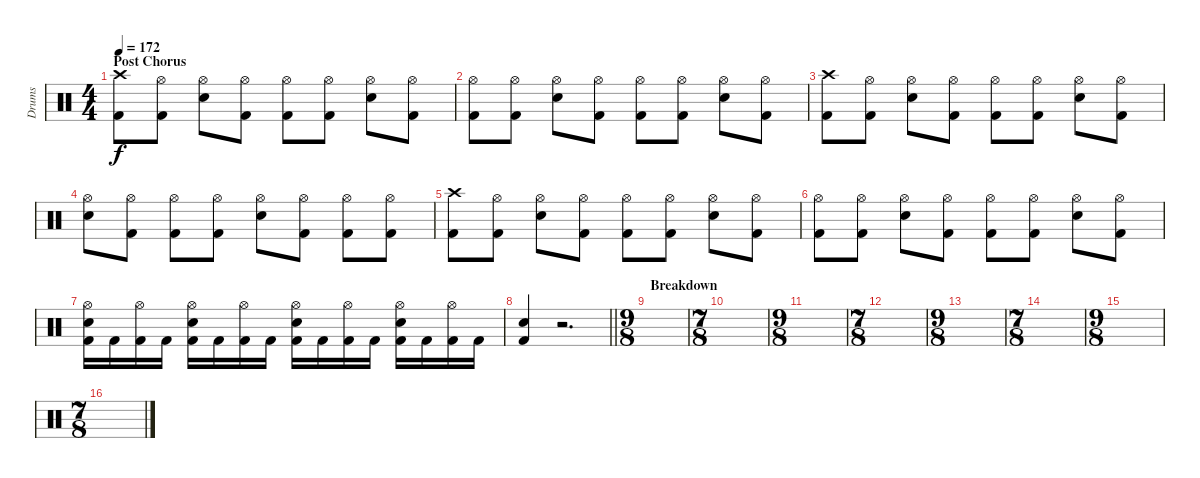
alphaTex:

\track ("Drums" "Drums") {instrument percussion}
\staff {score}
\articulation defaults
\ts (4 4)
\section ("" "Post Chorus")
\tempo 172
\clef neutral
\ks c
("Kick (hit) 2" "Crash high (hit)").8{dy f} ("Kick (hit) 2" "Hi-Hat (open)").8 ("Electric Snare (hit)" "Hi-Hat (open)").8 ("Kick (hit) 2" "Hi-Hat (open)").8 ("Kick (hit) 2" "Hi-Hat (open)").8 ("Kick (hit) 2" "Hi-Hat (open)").8 ("Electric Snare (hit)" "Hi-Hat (open)").8 ("Kick (hit) 2" "Hi-Hat (open)").8 |
("Kick (hit) 2" "Hi-Hat (open)").8 ("Kick (hit) 2" "Hi-Hat (open)").8 ("Electric Snare (hit)" "Hi-Hat (open)").8 ("Kick (hit) 2" "Hi-Hat (open)").8 ("Kick (hit) 2" "Hi-Hat (open)").8 ("Kick (hit) 2" "Hi-Hat (open)").8 ("Electric Snare (hit)" "Hi-Hat (open)").8 ("Kick (hit) 2" "Hi-Hat (open)").8 |
("Kick (hit) 2" "Crash high (hit)").8 ("Kick (hit) 2" "Hi-Hat (open)").8 ("Electric Snare (hit)" "Hi-Hat (open)").8 ("Kick (hit) 2" "Hi-Hat (open)").8 ("Kick (hit) 2" "Hi-Hat (open)").8 ("Kick (hit) 2" "Hi-Hat (open)").8 ("Electric Snare (hit)" "Hi-Hat (open)").8 ("Kick (hit) 2" "Hi-Hat (open)").8 |
("Hi-Hat (open)" "Snare (hit) 2").8 ("Kick (hit) 2" "Hi-Hat (open)").8 ("Kick (hit) 2" "Hi-Hat (open)").8 ("Kick (hit) 2" "Hi-Hat (open)").8 ("Hi-Hat (open)" "Snare (hit) 2").8 ("Kick (hit) 2" "Hi-Hat (open)").8 ("Kick (hit) 2" "Hi-Hat (open)").8 ("Kick (hit) 2" "Hi-Hat (open)").8 |
("Kick (hit) 2" "Crash high (hit)").8 ("Kick (hit) 2" "Hi-Hat (open)").8 ("Electric Snare (hit)" "Hi-Hat (open)").8 ("Kick (hit) 2" "Hi-Hat (open)").8 ("Kick (hit) 2" "Hi-Hat (open)").8 ("Kick (hit) 2" "Hi-Hat (open)").8 ("Electric Snare (hit)" "Hi-Hat (open)").8 ("Kick (hit) 2" "Hi-Hat (open)").8 |
("Kick (hit) 2" "Hi-Hat (open)").8 ("Kick (hit) 2" "Hi-Hat (open)").8 ("Electric Snare (hit)" "Hi-Hat (open)").8 ("Kick (hit) 2" "Hi-Hat (open)").8 ("Kick (hit) 2" "Hi-Hat (open)").8 ("Kick (hit) 2" "Hi-Hat (open)").8 ("Electric Snare (hit)" "Hi-Hat (open)").8 ("Kick (hit) 2" "Hi-Hat (open)").8 |
("Kick (hit) 2" "Electric Snare (hit)" "Hi-Hat (open)").16 "Kick (hit) 2".16 ("Kick (hit) 2" "Hi-Hat (open)").16 "Kick (hit) 2".16 ("Kick (hit) 2" "Electric Snare (hit)" "Hi-Hat (open)").16 "Kick (hit) 2".16 ("Kick (hit) 2" "Hi-Hat (open)").16 "Kick (hit) 2".16 ("Kick (hit) 2" "Electric Snare (hit)" "Hi-Hat (open)").16 "Kick (hit) 2".16 ("Kick (hit) 2" "Hi-Hat (open)").16 "Kick (hit) 2".16 ("Kick (hit) 2" "Electric Snare (hit)" "Hi-Hat (open)").16 "Kick (hit) 2".16 ("Kick (hit) 2" "Hi-Hat (open)").16 "Kick (hit) 2".16 |
\barLineRight lightlight
("Kick (hit) 2" "Electric Snare (hit)").4 r.2{d} |
\ts (9 8)
\section ("" "Breakdown")
|
\ts (7 8)
|
\ts (9 8)
|
\ts (7 8)
|
\ts (9 8)
|
\ts (7 8)
|
\ts (9 8)
|
\ts (7 8)
